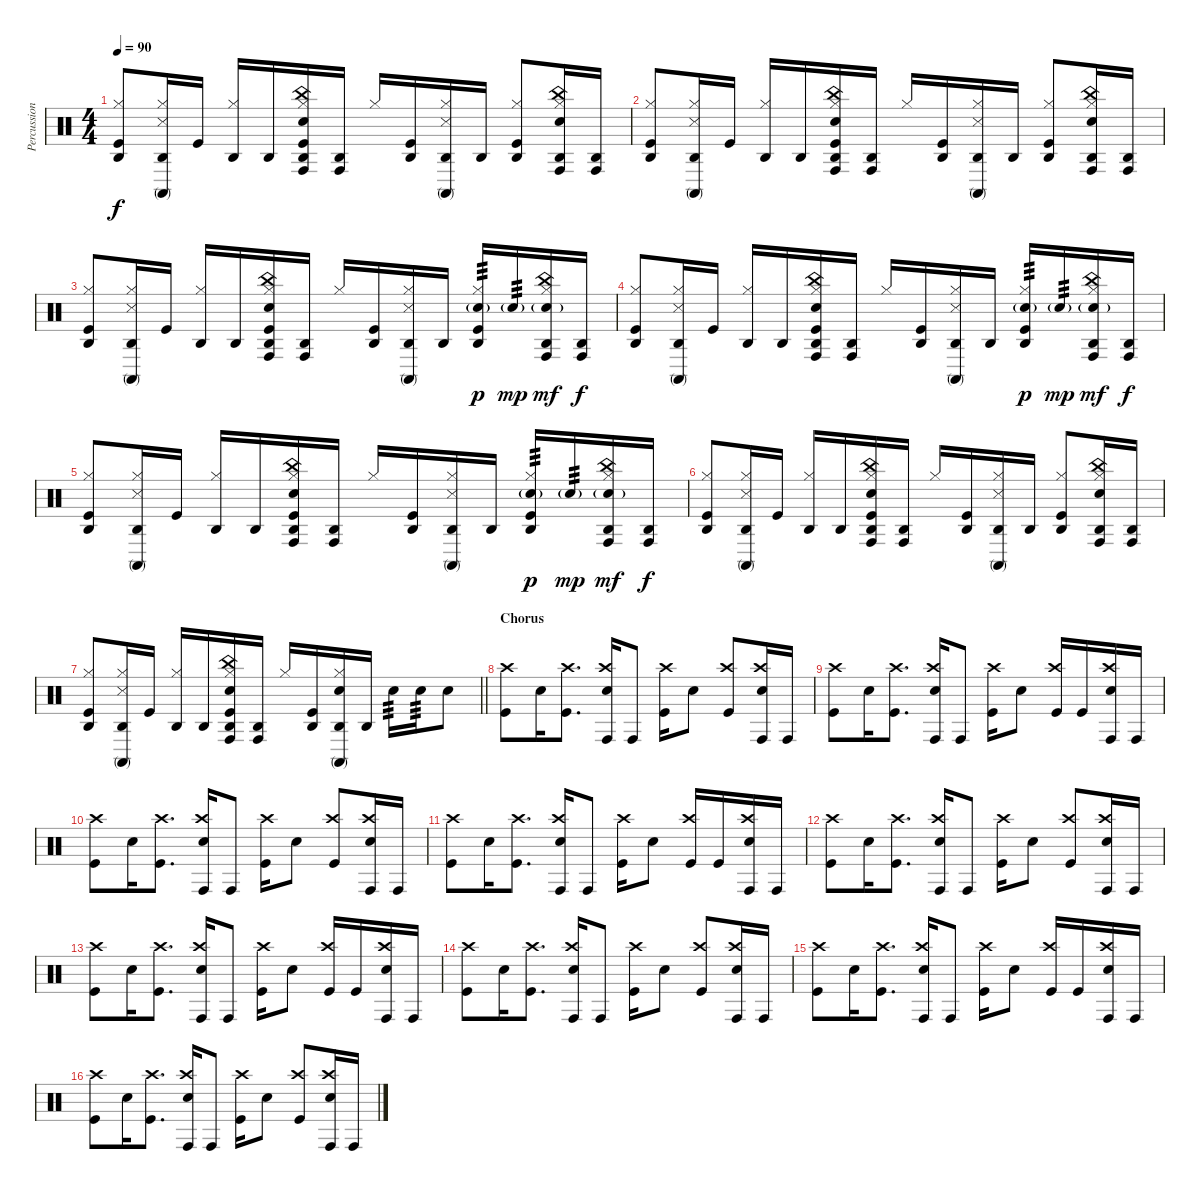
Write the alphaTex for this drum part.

\track ("Percussion" "Percussion") {instrument percussion}
\staff {score}
\articulation defaults
\ts (4 4)
\tempo 90
\clef neutral
\ks c
("Agogo high (hit)" "Hi-Hat (closed)" "Kick (hit)").8{dy f} ("Agogo high (hit)" "Hi-Hat (closed)" "Conga high (mute)" "Snare (side stick) 3").16 "Kick (hit)".16 ("Agogo high (hit)" "Hi-Hat (closed)").16 "Agogo high (hit)".16 ("Agogo high (hit)" "Hi-Hat (closed)" "Conga high (hit)" "Snare (hit) 2" "China (hit)" "Kick (hit)").16 ("Agogo high (hit)" "Conga high (hit)").16 "Hi-Hat (closed)".16 ("Agogo high (hit)" "Kick (hit)").16 ("Agogo high (hit)" "Hi-Hat (closed)" "Conga high (mute)" "Snare (side stick) 3").16 "Agogo high (hit)".16 ("Agogo high (hit)" "Hi-Hat (closed)" "Kick (hit)").8 ("Agogo high (hit)" "Hi-Hat (closed)" "Conga high (hit)" "Snare (hit) 2" "China (hit)").16 ("Agogo high (hit)" "Conga high (hit)").16 |
("Agogo high (hit)" "Hi-Hat (closed)" "Kick (hit)").8 ("Agogo high (hit)" "Hi-Hat (closed)" "Conga high (mute)" "Snare (side stick) 3").16 "Kick (hit)".16 ("Agogo high (hit)" "Hi-Hat (closed)").16 "Agogo high (hit)".16 ("Agogo high (hit)" "Hi-Hat (closed)" "Conga high (hit)" "Snare (hit) 2" "China (hit)" "Kick (hit)").16 ("Agogo high (hit)" "Conga high (hit)").16 "Hi-Hat (closed)".16 ("Agogo high (hit)" "Kick (hit)").16 ("Agogo high (hit)" "Hi-Hat (closed)" "Conga high (mute)" "Snare (side stick) 3").16 "Agogo high (hit)".16 ("Agogo high (hit)" "Hi-Hat (closed)" "Kick (hit)").8 ("Agogo high (hit)" "Hi-Hat (closed)" "Conga high (hit)" "Snare (hit) 2" "China (hit)").16 ("Agogo high (hit)" "Conga high (hit)").16 |
("Agogo high (hit)" "Hi-Hat (closed)" "Kick (hit)").8 ("Agogo high (hit)" "Hi-Hat (closed)" "Conga high (mute)" "Snare (side stick) 3").16 "Kick (hit)".16 ("Agogo high (hit)" "Hi-Hat (closed)").16 "Agogo high (hit)".16 ("Agogo high (hit)" "Hi-Hat (closed)" "Conga high (hit)" "Snare (hit) 2" "China (hit)" "Kick (hit)").16 ("Agogo high (hit)" "Conga high (hit)").16 "Hi-Hat (closed)".16 ("Agogo high (hit)" "Kick (hit)").16 ("Agogo high (hit)" "Hi-Hat (closed)" "Conga high (mute)" "Snare (side stick) 3").16 "Agogo high (hit)".16 ("Agogo high (hit)" "Hi-Hat (closed)" "Snare (hit) 2"{g} "Kick (hit)").16{tp 3 dy p} "Snare (hit) 2"{g}.16{tp 3 dy mp} ("Agogo high (hit)" "Hi-Hat (closed)" "Conga high (hit)" "Snare (hit) 2"{g} "China (hit)").16{dy mf} ("Agogo high (hit)" "Conga high (hit)").16{dy f} |
("Agogo high (hit)" "Hi-Hat (closed)" "Kick (hit)").8 ("Agogo high (hit)" "Hi-Hat (closed)" "Conga high (mute)" "Snare (side stick) 3").16 "Kick (hit)".16 ("Agogo high (hit)" "Hi-Hat (closed)").16 "Agogo high (hit)".16 ("Agogo high (hit)" "Hi-Hat (closed)" "Conga high (hit)" "Snare (hit) 2" "China (hit)" "Kick (hit)").16 ("Agogo high (hit)" "Conga high (hit)").16 "Hi-Hat (closed)".16 ("Agogo high (hit)" "Kick (hit)").16 ("Agogo high (hit)" "Hi-Hat (closed)" "Conga high (mute)" "Snare (side stick) 3").16 "Agogo high (hit)".16 ("Agogo high (hit)" "Hi-Hat (closed)" "Snare (hit) 2"{g} "Kick (hit)").16{tp 3 dy p} "Snare (hit) 2"{g}.16{tp 3 dy mp} ("Agogo high (hit)" "Hi-Hat (closed)" "Conga high (hit)" "Snare (hit) 2"{g} "China (hit)").16{dy mf} ("Agogo high (hit)" "Conga high (hit)").16{dy f} |
("Agogo high (hit)" "Hi-Hat (closed)" "Kick (hit)").8 ("Agogo high (hit)" "Hi-Hat (closed)" "Conga high (mute)" "Snare (side stick) 3").16 "Kick (hit)".16 ("Agogo high (hit)" "Hi-Hat (closed)").16 "Agogo high (hit)".16 ("Agogo high (hit)" "Hi-Hat (closed)" "Conga high (hit)" "Snare (hit) 2" "China (hit)" "Kick (hit)").16 ("Agogo high (hit)" "Conga high (hit)").16 "Hi-Hat (closed)".16 ("Agogo high (hit)" "Kick (hit)").16 ("Agogo high (hit)" "Hi-Hat (closed)" "Conga high (mute)" "Snare (side stick) 3").16 "Agogo high (hit)".16 ("Agogo high (hit)" "Hi-Hat (closed)" "Snare (hit) 2"{g} "Kick (hit)").16{tp 3 dy p} "Snare (hit) 2"{g}.16{tp 3 dy mp} ("Agogo high (hit)" "Hi-Hat (closed)" "Conga high (hit)" "Snare (hit) 2"{g} "China (hit)").16{dy mf} ("Agogo high (hit)" "Conga high (hit)").16{dy f} |
("Agogo high (hit)" "Hi-Hat (closed)" "Kick (hit)").8 ("Agogo high (hit)" "Hi-Hat (closed)" "Conga high (mute)" "Snare (side stick) 3").16 "Kick (hit)".16 ("Agogo high (hit)" "Hi-Hat (closed)").16 "Agogo high (hit)".16 ("Agogo high (hit)" "Hi-Hat (closed)" "Conga high (hit)" "Snare (hit) 2" "China (hit)" "Kick (hit)").16 ("Agogo high (hit)" "Conga high (hit)").16 "Hi-Hat (closed)".16 ("Agogo high (hit)" "Kick (hit)").16 ("Agogo high (hit)" "Hi-Hat (closed)" "Conga high (mute)" "Snare (side stick) 3").16 "Agogo high (hit)".16 ("Agogo high (hit)" "Hi-Hat (closed)" "Kick (hit)").8 ("Agogo high (hit)" "Hi-Hat (closed)" "Conga high (hit)" "Snare (hit) 2" "China (hit)").16 ("Agogo high (hit)" "Conga high (hit)").16 |
\barLineRight lightlight
("Agogo high (hit)" "Hi-Hat (closed)" "Kick (hit)").8 ("Agogo high (hit)" "Hi-Hat (closed)" "Conga high (mute)" "Snare (side stick) 3").16 "Kick (hit)".16 ("Agogo high (hit)" "Hi-Hat (closed)").16 "Agogo high (hit)".16 ("Agogo high (hit)" "Hi-Hat (closed)" "Conga high (hit)" "Snare (hit) 2" "China (hit)" "Kick (hit)").16 ("Agogo high (hit)" "Conga high (hit)").16 "Hi-Hat (closed)".16 ("Agogo high (hit)" "Kick (hit)").16 ("Agogo high (hit)" "Hi-Hat (closed)" "Conga high (mute)" "Snare (hit) 2").16 "Agogo high (hit)".16 "Snare (hit) 2".16{tp 3} "Snare (hit) 2".16{tp 3} "Snare (hit) 2".8 |
\section ("" "Chorus")
("Crash high (hit)" "Kick (hit)").8 "Snare (hit) 2".16 ("Crash high (hit)" "Kick (hit)").8{d} ("Crash high (hit)" "Snare (hit) 2" "Conga high (hit)").16 "Conga high (hit)".8 ("Crash high (hit)" "Kick (hit)").16 "Snare (hit) 2".8 ("Crash high (hit)" "Kick (hit)").8 ("Crash high (hit)" "Snare (hit) 2" "Conga high (hit)").16 "Conga high (hit)".16 |
("Crash high (hit)" "Kick (hit)").8 "Snare (hit) 2".16 ("Crash high (hit)" "Kick (hit)").8{d} ("Crash high (hit)" "Snare (hit) 2" "Conga high (hit)").16 "Conga high (hit)".8 ("Crash high (hit)" "Kick (hit)").16 "Snare (hit) 2".8 ("Crash high (hit)" "Kick (hit)").16 "Kick (hit)".16 ("Crash high (hit)" "Snare (hit) 2" "Conga high (hit)").16 "Conga high (hit)".16 |
("Crash high (hit)" "Kick (hit)").8 "Snare (hit) 2".16 ("Crash high (hit)" "Kick (hit)").8{d} ("Crash high (hit)" "Snare (hit) 2" "Conga high (hit)").16 "Conga high (hit)".8 ("Crash high (hit)" "Kick (hit)").16 "Snare (hit) 2".8 ("Crash high (hit)" "Kick (hit)").8 ("Crash high (hit)" "Snare (hit) 2" "Conga high (hit)").16 "Conga high (hit)".16 |
("Crash high (hit)" "Kick (hit)").8 "Snare (hit) 2".16 ("Crash high (hit)" "Kick (hit)").8{d} ("Crash high (hit)" "Snare (hit) 2" "Conga high (hit)").16 "Conga high (hit)".8 ("Crash high (hit)" "Kick (hit)").16 "Snare (hit) 2".8 ("Crash high (hit)" "Kick (hit)").16 "Kick (hit)".16 ("Crash high (hit)" "Snare (hit) 2" "Conga high (hit)").16 "Conga high (hit)".16 |
("Crash high (hit)" "Kick (hit)").8 "Snare (hit) 2".16 ("Crash high (hit)" "Kick (hit)").8{d} ("Crash high (hit)" "Snare (hit) 2" "Conga high (hit)").16 "Conga high (hit)".8 ("Crash high (hit)" "Kick (hit)").16 "Snare (hit) 2".8 ("Crash high (hit)" "Kick (hit)").8 ("Crash high (hit)" "Snare (hit) 2" "Conga high (hit)").16 "Conga high (hit)".16 |
("Crash high (hit)" "Kick (hit)").8 "Snare (hit) 2".16 ("Crash high (hit)" "Kick (hit)").8{d} ("Crash high (hit)" "Snare (hit) 2" "Conga high (hit)").16 "Conga high (hit)".8 ("Crash high (hit)" "Kick (hit)").16 "Snare (hit) 2".8 ("Crash high (hit)" "Kick (hit)").16 "Kick (hit)".16 ("Crash high (hit)" "Snare (hit) 2" "Conga high (hit)").16 "Conga high (hit)".16 |
("Crash high (hit)" "Kick (hit)").8 "Snare (hit) 2".16 ("Crash high (hit)" "Kick (hit)").8{d} ("Crash high (hit)" "Snare (hit) 2" "Conga high (hit)").16 "Conga high (hit)".8 ("Crash high (hit)" "Kick (hit)").16 "Snare (hit) 2".8 ("Crash high (hit)" "Kick (hit)").8 ("Crash high (hit)" "Snare (hit) 2" "Conga high (hit)").16 "Conga high (hit)".16 |
("Crash high (hit)" "Kick (hit)").8 "Snare (hit) 2".16 ("Crash high (hit)" "Kick (hit)").8{d} ("Crash high (hit)" "Snare (hit) 2" "Conga high (hit)").16 "Conga high (hit)".8 ("Crash high (hit)" "Kick (hit)").16 "Snare (hit) 2".8 ("Crash high (hit)" "Kick (hit)").16 "Kick (hit)".16 ("Crash high (hit)" "Snare (hit) 2" "Conga high (hit)").16 "Conga high (hit)".16 |
("Crash high (hit)" "Kick (hit)").8 "Snare (hit) 2".16 ("Crash high (hit)" "Kick (hit)").8{d} ("Crash high (hit)" "Snare (hit) 2" "Conga high (hit)").16 "Conga high (hit)".8 ("Crash high (hit)" "Kick (hit)").16 "Snare (hit) 2".8 ("Crash high (hit)" "Kick (hit)").8 ("Crash high (hit)" "Snare (hit) 2" "Conga high (hit)").16 "Conga high (hit)".16
